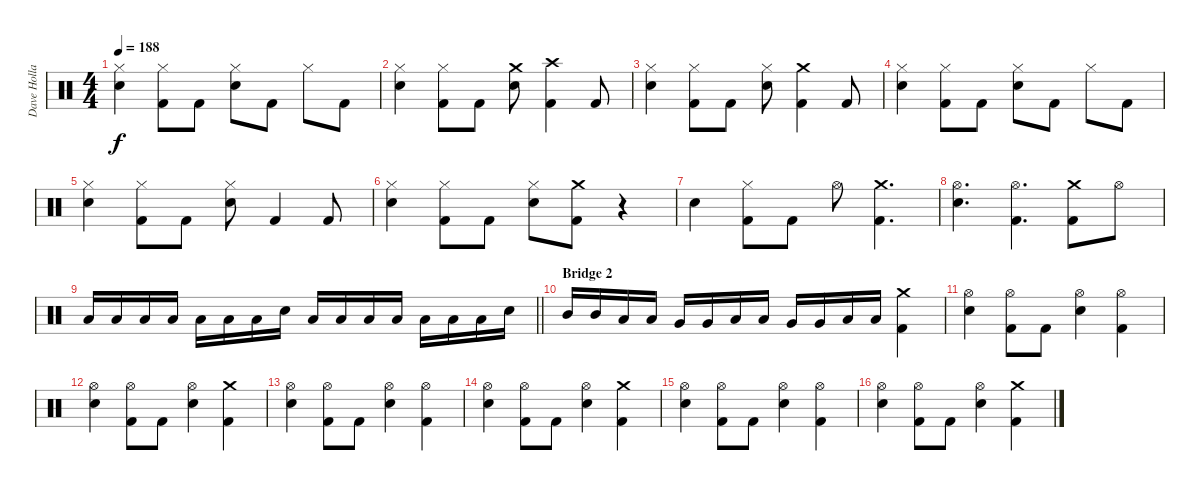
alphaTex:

\track ("Dave Holland" "Dave Holla") {instrument percussion}
\staff {score}
\articulation defaults
\ts (4 4)
\tempo 188
\clef neutral
\ks c
("Snare (hit) 2" "Hi-Hat (closed)").4{dy f} ("Kick (hit) 2" "Hi-Hat (closed)").8 "Kick (hit) 2".8 ("Snare (hit) 2" "Hi-Hat (closed)").8 "Kick (hit) 2".8 "Hi-Hat (closed)".8 "Kick (hit) 2".8 |
("Snare (hit) 2" "Hi-Hat (closed)").4 ("Kick (hit) 2" "Hi-Hat (closed)").8 "Kick (hit) 2".8 ("Crash medium (hit)" "Snare (hit) 2").8 ("Crash high (hit)" "Kick (hit) 2").4 "Kick (hit) 2".8 |
("Snare (hit) 2" "Hi-Hat (closed)").4 ("Kick (hit) 2" "Hi-Hat (closed)").8 "Kick (hit) 2".8 ("Snare (hit) 2" "Hi-Hat (closed)").8 ("Kick (hit) 2" "Crash medium (hit)").4 "Kick (hit) 2".8 |
("Snare (hit) 2" "Hi-Hat (closed)").4 ("Kick (hit) 2" "Hi-Hat (closed)").8 "Kick (hit) 2".8 ("Snare (hit) 2" "Hi-Hat (closed)").8 "Kick (hit) 2".8 "Hi-Hat (closed)".8 "Kick (hit) 2".8 |
("Snare (hit) 2" "Hi-Hat (closed)").4 ("Kick (hit) 2" "Hi-Hat (closed)").8 "Kick (hit) 2".8 ("Snare (hit) 2" "Hi-Hat (closed)").8 "Kick (hit) 2".4 "Kick (hit) 2".8 |
("Snare (hit) 2" "Hi-Hat (closed)").4 ("Kick (hit) 2" "Hi-Hat (closed)").8 "Kick (hit) 2".8 ("Snare (hit) 2" "Hi-Hat (closed)").8 ("Kick (hit) 2" "Crash medium (hit)").8 r.4 |
"Snare (hit) 2".4 ("Kick (hit) 2" "Hi-Hat (closed)").8 "Kick (hit) 2".8 "Hi-Hat (open)".8 ("Kick (hit) 2" "Crash medium (hit)").4{d} |
("Snare (hit) 2" "Hi-Hat (open)").4{d} ("Kick (hit) 2" "Hi-Hat (open)").4{d} ("Kick (hit) 2" "Crash medium (hit)").8 "Hi-Hat (open)".8 |
\barLineRight lightlight "Low Tom (hit)".16 "Low Tom (hit)".16 "Low Tom (hit)".16 "Low Tom (hit)".16 "Low Tom (hit)".16 "Low Tom (hit)".16 "Low Tom (hit)".16 "Snare (hit) 2".16 "Low Tom (hit)".16 "Low Tom (hit)".16 "Low Tom (hit)".16 "Low Tom (hit)".16 "Low Tom (hit)".16 "Low Tom (hit)".16 "Low Tom (hit)".16 "Snare (hit) 2".16
|
\section ("" "Bridge 2")
"Mid Tom (hit)".16 "Mid Tom (hit)".16 "Low Tom (hit)".16 "Low Tom (hit)".16 "Very Low Tom (hit)".16 "Very Low Tom (hit)".16 "Low Floor Tom (hit)".16 "Low Floor Tom (hit)".16 "Very Low Tom (hit)".16 "Very Low Tom (hit)".16 "Low Floor Tom (hit)".16 "Low Floor Tom (hit)".16 ("Kick (hit) 2" "Crash medium (hit)").4 |
("Snare (hit) 2" "Hi-Hat (open)").4 ("Kick (hit) 2" "Hi-Hat (open)").8 "Kick (hit) 2".8 ("Snare (hit) 2" "Hi-Hat (open)").4 ("Kick (hit) 2" "Hi-Hat (open)").4 |
("Snare (hit) 2" "Hi-Hat (open)").4 ("Kick (hit) 2" "Hi-Hat (open)").8 "Kick (hit) 2".8 ("Snare (hit) 2" "Hi-Hat (open)").4 ("Kick (hit) 2" "Crash medium (hit)").4 |
("Snare (hit) 2" "Hi-Hat (open)").4 ("Kick (hit) 2" "Hi-Hat (open)").8 "Kick (hit) 2".8 ("Snare (hit) 2" "Hi-Hat (open)").4 ("Kick (hit) 2" "Hi-Hat (open)").4 |
("Snare (hit) 2" "Hi-Hat (open)").4 ("Kick (hit) 2" "Hi-Hat (open)").8 "Kick (hit) 2".8 ("Snare (hit) 2" "Hi-Hat (open)").4 ("Kick (hit) 2" "Crash medium (hit)").4 |
("Snare (hit) 2" "Hi-Hat (open)").4 ("Kick (hit) 2" "Hi-Hat (open)").8 "Kick (hit) 2".8 ("Snare (hit) 2" "Hi-Hat (open)").4 ("Kick (hit) 2" "Hi-Hat (open)").4 |
("Snare (hit) 2" "Hi-Hat (open)").4 ("Kick (hit) 2" "Hi-Hat (open)").8 "Kick (hit) 2".8 ("Snare (hit) 2" "Hi-Hat (open)").4 ("Kick (hit) 2" "Crash medium (hit)").4
